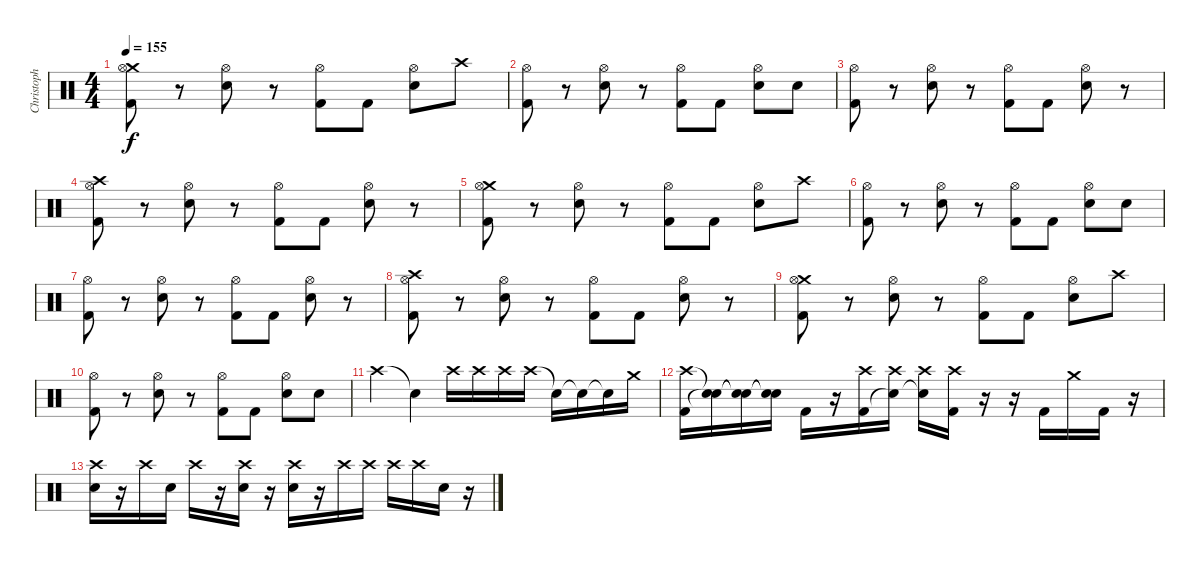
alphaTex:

\track ("Christoph \"Doom\" Schneider" "Christoph ") {instrument percussion}
\staff {score}
\articulation defaults
\ts (4 4)
\tempo 155
\clef neutral
\ks c
("Kick (hit) 2" "Crash medium (hit)" "Hi-Hat (open)").8{dy f} r.8 ("Electric Snare (hit)" "Hi-Hat (open)").8 r.8 ("Kick (hit) 2" "Hi-Hat (open)").8 "Kick (hit) 2".8 ("Electric Snare (hit)" "Hi-Hat (open)").8 "Crash high (hit)".8 |
("Kick (hit) 2" "Hi-Hat (open)").8 r.8 ("Electric Snare (hit)" "Hi-Hat (open)").8 r.8 ("Kick (hit) 2" "Hi-Hat (open)").8 "Kick (hit) 2".8 ("Electric Snare (hit)" "Hi-Hat (open)").8 "Electric Snare (hit)".8 |
("Kick (hit) 2" "Hi-Hat (open)").8 r.8 ("Electric Snare (hit)" "Hi-Hat (open)").8 r.8 ("Kick (hit) 2" "Hi-Hat (open)").8 "Kick (hit) 2".8 ("Electric Snare (hit)" "Hi-Hat (open)").8 r.8 |
("Kick (hit) 2" "Crash high (hit)" "Hi-Hat (open)").8 r.8 ("Electric Snare (hit)" "Hi-Hat (open)").8 r.8 ("Kick (hit) 2" "Hi-Hat (open)").8 "Kick (hit) 2".8 ("Electric Snare (hit)" "Hi-Hat (open)").8 r.8 |
("Kick (hit) 2" "Crash medium (hit)" "Hi-Hat (open)").8 r.8 ("Electric Snare (hit)" "Hi-Hat (open)").8 r.8 ("Kick (hit) 2" "Hi-Hat (open)").8 "Kick (hit) 2".8 ("Electric Snare (hit)" "Hi-Hat (open)").8 "Crash high (hit)".8 |
("Kick (hit) 2" "Hi-Hat (open)").8 r.8 ("Electric Snare (hit)" "Hi-Hat (open)").8 r.8 ("Kick (hit) 2" "Hi-Hat (open)").8 "Kick (hit) 2".8 ("Electric Snare (hit)" "Hi-Hat (open)").8 "Electric Snare (hit)".8 |
("Kick (hit) 2" "Hi-Hat (open)").8 r.8 ("Electric Snare (hit)" "Hi-Hat (open)").8 r.8 ("Kick (hit) 2" "Hi-Hat (open)").8 "Kick (hit) 2".8 ("Electric Snare (hit)" "Hi-Hat (open)").8 r.8 |
("Kick (hit) 2" "Crash high (hit)" "Hi-Hat (open)").8 r.8 ("Electric Snare (hit)" "Hi-Hat (open)").8 r.8 ("Kick (hit) 2" "Hi-Hat (open)").8 "Kick (hit) 2".8 ("Electric Snare (hit)" "Hi-Hat (open)").8 r.8 |
("Kick (hit) 2" "Crash medium (hit)" "Hi-Hat (open)").8 r.8 ("Electric Snare (hit)" "Hi-Hat (open)").8 r.8 ("Kick (hit) 2" "Hi-Hat (open)").8 "Kick (hit) 2".8 ("Electric Snare (hit)" "Hi-Hat (open)").8 "Crash high (hit)".8 |
("Kick (hit) 2" "Hi-Hat (open)").8 r.8 ("Electric Snare (hit)" "Hi-Hat (open)").8 r.8 ("Kick (hit) 2" "Hi-Hat (open)").8 "Kick (hit) 2".8 ("Electric Snare (hit)" "Hi-Hat (open)").8 "Electric Snare (hit)".8 |
"Crash high (hit)".4 "Snare (hit)"{t}.4 "Crash high (hit)".16 "Crash high (hit)".16 "Crash high (hit)".16 "Crash high (hit)".16 "Snare (hit)"{t}.16 "Snare (hit)"{t}.16 "Snare (hit)"{t}.16 "Crash medium (hit)".16 |
("Kick (hit) 2" "Crash high (hit)").16 ("Snare (hit)"{t} "Snare (hit)"{t}).16 ("Snare (hit)"{t} "Snare (hit)"{t}).16 ("Snare (hit)"{t} "Snare (hit)"{t}).16 "Kick (hit) 2".16 r.16 ("Kick (hit) 2" "Crash high (hit)").16 ("Snare (hit)"{t} "Crash high (hit)").16 ("Snare (hit)"{t} "Crash high (hit)").16 ("Kick (hit) 2" "Crash high (hit)").16 r.16 r.16 "Kick (hit) 2".16 "Crash medium (hit)".16 "Kick (hit) 2".16 r.16 |
("Crash high (hit)" "Electric Snare (hit)").16 r.16 "Crash high (hit)".16 "Electric Snare (hit)".16 "Crash high (hit)".16 r.16 ("Crash high (hit)" "Electric Snare (hit)").16 r.16 ("Crash high (hit)" "Electric Snare (hit)").16 r.16 "Crash high (hit)".16 "Crash high (hit)".16 "Crash high (hit)".16 "Crash high (hit)".16 "Electric Snare (hit)".16 r.16
